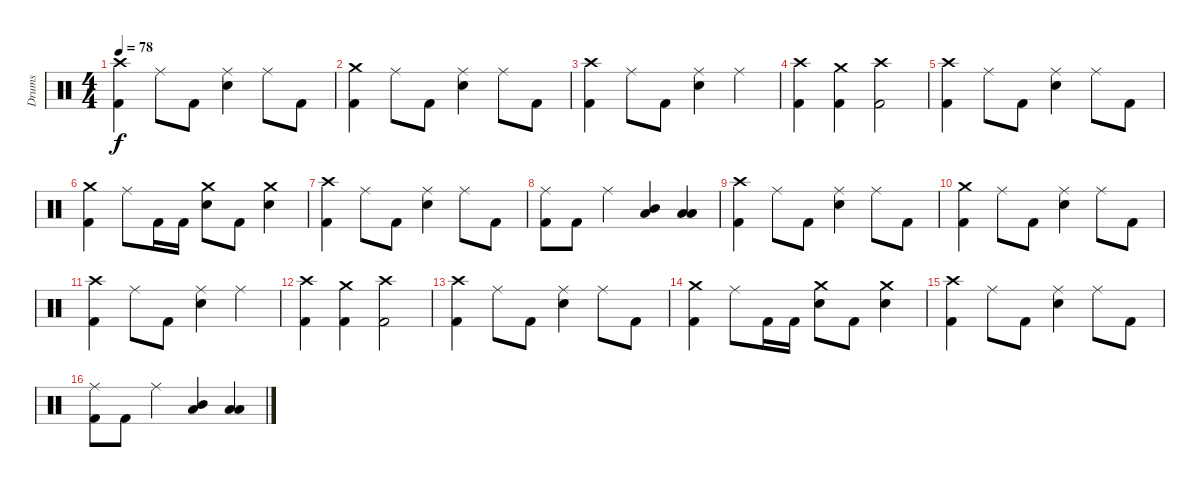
\track ("Drums" "Drums") {instrument percussion}
\staff {score}
\articulation defaults
\ts (4 4)
\tempo 78
\clef neutral
\ks c
("Crash high (hit)" "Kick (hit) 2").4{dy f} "Ride (middle)".8 "Kick (hit) 2".8 ("Ride (middle)" "Electric Snare (hit)").4 "Ride (middle)".8 "Kick (hit) 2".8 |
("Crash medium (hit)" "Kick (hit) 2").4 "Ride (middle)".8 "Kick (hit) 2".8 ("Ride (middle)" "Electric Snare (hit)").4 "Ride (middle)".8 "Kick (hit) 2".8 |
("Crash high (hit)" "Kick (hit) 2").4 "Ride (middle)".8 "Kick (hit) 2".8 ("Ride (middle)" "Electric Snare (hit)").4 "Ride (middle)".4 |
("Crash high (hit)" "Kick (hit) 2").4 ("Crash medium (hit)" "Kick (hit) 2").4 ("Crash high (hit)" "Kick (hit) 2").2 |
("Crash high (hit)" "Kick (hit) 2").4 "Ride (middle)".8 "Kick (hit) 2".8 ("Ride (middle)" "Electric Snare (hit)").4 "Ride (middle)".8 "Kick (hit) 2".8 |
("Crash medium (hit)" "Kick (hit) 2").4 "Ride (middle)".8 "Kick (hit) 2".16 "Kick (hit) 2".16 ("Crash medium (hit)" "Electric Snare (hit)").8 "Kick (hit) 2".8 ("Crash medium (hit)" "Electric Snare (hit)").4 |
("Crash high (hit)" "Kick (hit) 2").4 "Ride (middle)".8 "Kick (hit) 2".8 ("Ride (middle)" "Electric Snare (hit)").4 "Ride (middle)".8 "Kick (hit) 2".8 |
("Ride (middle)" "Kick (hit) 2").8 "Kick (hit) 2".8 "Ride (middle)".4 ("Mid Tom (hit)" "Low Tom (hit)").4 ("Low Tom (hit)" "Low Floor Tom (hit)").4 |
("Crash high (hit)" "Kick (hit) 2").4 "Ride (middle)".8 "Kick (hit) 2".8 ("Ride (middle)" "Electric Snare (hit)").4 "Ride (middle)".8 "Kick (hit) 2".8 |
("Crash medium (hit)" "Kick (hit) 2").4 "Ride (middle)".8 "Kick (hit) 2".8 ("Ride (middle)" "Electric Snare (hit)").4 "Ride (middle)".8 "Kick (hit) 2".8 |
("Crash high (hit)" "Kick (hit) 2").4 "Ride (middle)".8 "Kick (hit) 2".8 ("Ride (middle)" "Electric Snare (hit)").4 "Ride (middle)".4 |
("Crash high (hit)" "Kick (hit) 2").4 ("Crash medium (hit)" "Kick (hit) 2").4 ("Crash high (hit)" "Kick (hit) 2").2 |
("Crash high (hit)" "Kick (hit) 2").4 "Ride (middle)".8 "Kick (hit) 2".8 ("Ride (middle)" "Electric Snare (hit)").4 "Ride (middle)".8 "Kick (hit) 2".8 |
("Crash medium (hit)" "Kick (hit) 2").4 "Ride (middle)".8 "Kick (hit) 2".16 "Kick (hit) 2".16 ("Crash medium (hit)" "Electric Snare (hit)").8 "Kick (hit) 2".8 ("Crash medium (hit)" "Electric Snare (hit)").4 |
("Crash high (hit)" "Kick (hit) 2").4 "Ride (middle)".8 "Kick (hit) 2".8 ("Ride (middle)" "Electric Snare (hit)").4 "Ride (middle)".8 "Kick (hit) 2".8 |
("Ride (middle)" "Kick (hit) 2").8 "Kick (hit) 2".8 "Ride (middle)".4 ("Mid Tom (hit)" "Low Tom (hit)").4 ("Low Tom (hit)" "Low Floor Tom (hit)").4
